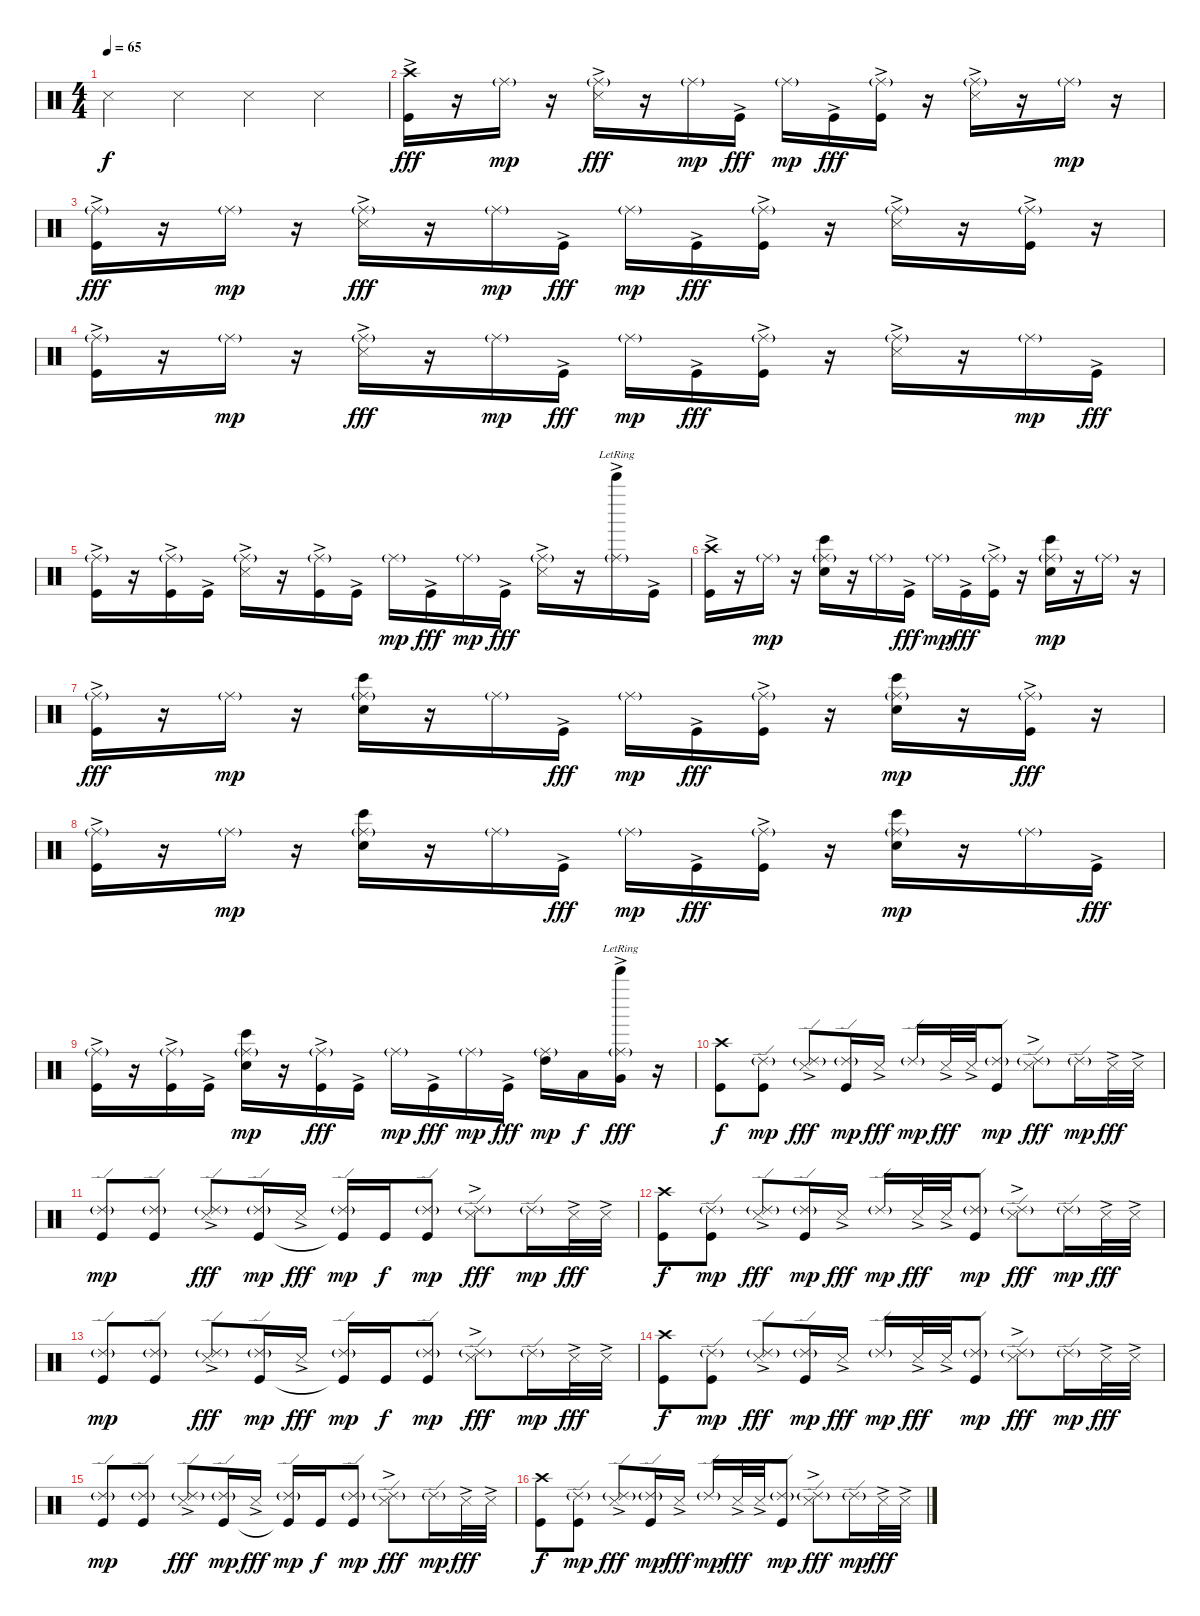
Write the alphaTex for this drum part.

\track "" {instrument percussion}
\staff {score}
\articulation defaults
\ts (4 4)
\tempo 65
\clef neutral
\ks c "Snare (side stick) 3".4{dy f} "Snare (side stick) 3".4 "Snare (side stick) 3".4 "Snare (side stick) 3".4
|
("Crash high (hit)" "Kick (hit)"{ac}).16{dy fff} r.16 "Ride (middle)"{g}.16{dy mp} r.16 ("Ride (middle)"{g} "Snare (side stick) 3"{ac}).16{dy fff} r.16 "Ride (middle)"{g}.16{dy mp} "Kick (hit)"{ac}.16{dy fff} "Ride (middle)"{g}.16{dy mp} "Kick (hit)"{ac}.16{dy fff} ("Ride (middle)"{g} "Kick (hit)"{ac}).16 r.16 ("Ride (middle)"{g} "Snare (side stick) 3"{ac}).16 r.16 "Ride (middle)"{g}.16{dy mp} r.16 |
("Ride (middle)"{g} "Kick (hit)"{ac}).16{dy fff} r.16 "Ride (middle)"{g}.16{dy mp} r.16 ("Ride (middle)"{g} "Snare (side stick) 3"{ac}).16{dy fff} r.16 "Ride (middle)"{g}.16{dy mp} "Kick (hit)"{ac}.16{dy fff} "Ride (middle)"{g}.16{dy mp} "Kick (hit)"{ac}.16{dy fff} ("Ride (middle)"{g} "Kick (hit)"{ac}).16 r.16 ("Ride (middle)"{g} "Snare (side stick) 3"{ac}).16 r.16 ("Ride (middle)"{g} "Kick (hit)"{ac}).16 r.16 |
("Ride (middle)"{g} "Kick (hit)"{ac}).16{txt ""} r.16 "Ride (middle)"{g}.16{dy mp} r.16 ("Ride (middle)"{g} "Snare (side stick) 3"{ac}).16{dy fff} r.16 "Ride (middle)"{g}.16{dy mp} "Kick (hit)"{ac}.16{dy fff} "Ride (middle)"{g}.16{dy mp} "Kick (hit)"{ac}.16{dy fff} ("Ride (middle)"{g} "Kick (hit)"{ac}).16 r.16 ("Ride (middle)"{g} "Snare (side stick) 3"{ac}).16 r.16 "Ride (middle)"{g}.16{dy mp} "Kick (hit)"{ac}.16{dy fff} |
("Ride (middle)"{g} "Kick (hit)"{ac}).16 r.16 ("Ride (middle)"{g} "Kick (hit)"{ac}).16 "Kick (hit)"{ac}.16 ("Ride (middle)"{g} "Snare (side stick) 3"{ac}).16 r.16 ("Ride (middle)"{g} "Kick (hit)"{ac}).16 "Kick (hit)"{ac}.16 "Ride (middle)"{g}.16{dy mp} "Kick (hit)"{ac}.16{dy fff} "Ride (middle)"{g}.16{dy mp} "Kick (hit)"{ac}.16{dy fff} ("Ride (middle)"{g} "Snare (side stick) 3"{ac}).16 r.16 ("Ride (middle)"{g} "Bell Tree (hit)"{ac lr}).16 "Kick (hit)"{ac}.16 |
("Crash high (hit)" "Kick (hit)"{ac}).16 r.16 "Ride (middle)"{g}.16{dy mp} r.16 ("Ride (middle)"{g} "Electric Snare (hit)" "Bongo High (hit)").16 r.16 "Ride (middle)"{g}.16 "Kick (hit)"{ac}.16{dy fff} "Ride (middle)"{g}.16{dy mp} "Kick (hit)"{ac}.16{dy fff} ("Ride (middle)"{g} "Kick (hit)"{ac}).16 r.16 ("Ride (middle)"{g} "Electric Snare (hit)" "Bongo High (hit)").16{dy mp} r.16 "Ride (middle)"{g}.16 r.16 |
("Ride (middle)"{g} "Kick (hit)"{ac}).16{dy fff} r.16 "Ride (middle)"{g}.16{dy mp} r.16 ("Ride (middle)"{g} "Electric Snare (hit)" "Bongo High (hit)").16 r.16 "Ride (middle)"{g}.16 "Kick (hit)"{ac}.16{dy fff} "Ride (middle)"{g}.16{dy mp} "Kick (hit)"{ac}.16{dy fff} ("Ride (middle)"{g} "Kick (hit)"{ac}).16 r.16 ("Ride (middle)"{g} "Electric Snare (hit)" "Bongo High (hit)").16{dy mp} r.16 ("Ride (middle)"{g} "Kick (hit)"{ac}).16{dy fff} r.16 |
("Ride (middle)"{g} "Kick (hit)"{ac}).16 r.16 "Ride (middle)"{g}.16{dy mp} r.16 ("Ride (middle)"{g} "Electric Snare (hit)" "Bongo High (hit)").16 r.16 "Ride (middle)"{g}.16 "Kick (hit)"{ac}.16{dy fff} "Ride (middle)"{g}.16{dy mp} "Kick (hit)"{ac}.16{dy fff} ("Ride (middle)"{g} "Kick (hit)"{ac}).16 r.16 ("Ride (middle)"{g} "Electric Snare (hit)" "Bongo High (hit)").16{dy mp} r.16 "Ride (middle)"{g}.16 "Kick (hit)"{ac}.16{dy fff} |
("Ride (middle)"{g} "Kick (hit)"{ac}).16 r.16 ("Ride (middle)"{g} "Kick (hit)"{ac}).16 "Kick (hit)"{ac}.16 ("Ride (middle)"{g} "Electric Snare (hit)" "Bongo High (hit)").16{dy mp} r.16 ("Ride (middle)"{g} "Kick (hit)"{ac}).16{dy fff} "Kick (hit)"{ac}.16 "Ride (middle)"{g}.16{dy mp} "Kick (hit)"{ac}.16{dy fff} "Ride (middle)"{g}.16{dy mp} "Kick (hit)"{ac}.16{dy fff} ("Ride (middle)"{g} "High Tom (hit)").16{dy mp} "Low Tom (hit)".16{dy f} ("Ride (middle)"{g} "Bell Tree (hit)"{ac lr} "Very Low Tom (hit)").16{dy fff} r.16 |
("Crash high (hit)" "Kick (hit)").8{dy f} ("Ride (edge) 2"{g} "Kick (hit)").8{dy mp} ("Ride (edge) 2"{g} "Snare (side stick) 3"{ac}).8{dy fff} ("Ride (edge) 2"{g} "Kick (hit)").16{dy mp} "Snare (side stick) 3"{ac}.16{dy fff} "Ride (edge) 2"{g}.16{dy mp} "Snare (side stick) 3"{ac}.32{dy fff} "Snare (side stick) 3"{ac}.32 ("Ride (edge) 2"{g} "Kick (hit)").8{dy mp} ("Ride (edge) 2"{g} "Snare (side stick) 3"{ac}).8{dy fff} "Ride (edge) 2"{g}.16{dy mp} "Snare (side stick) 3"{ac}.32{dy fff} "Snare (side stick) 3"{ac}.32 |
("Ride (edge) 2"{g} "Kick (hit)").8{dy mp} ("Ride (edge) 2"{g} "Kick (hit)").8 ("Ride (edge) 2"{g} "Snare (side stick) 3"{ac}).8{dy fff} ("Ride (edge) 2"{g} "Kick (hit)").16{dy mp} "Snare (side stick) 3"{ac}.16{dy fff} ("Ride (edge) 2"{g} "Kick (hit)"{t}).16{dy mp} "Kick (hit)".16{dy f} ("Ride (edge) 2"{g} "Kick (hit)").8{dy mp} ("Ride (edge) 2"{g} "Snare (side stick) 3"{ac}).8{dy fff} "Ride (edge) 2"{g}.16{dy mp} "Snare (side stick) 3"{ac}.32{dy fff} "Snare (side stick) 3"{ac}.32 |
("Crash high (hit)" "Kick (hit)").8{dy f} ("Ride (edge) 2"{g} "Kick (hit)").8{dy mp} ("Ride (edge) 2"{g} "Snare (side stick) 3"{ac}).8{dy fff} ("Ride (edge) 2"{g} "Kick (hit)").16{dy mp} "Snare (side stick) 3"{ac}.16{dy fff} "Ride (edge) 2"{g}.16{dy mp} "Snare (side stick) 3"{ac}.32{dy fff} "Snare (side stick) 3"{ac}.32 ("Ride (edge) 2"{g} "Kick (hit)").8{dy mp} ("Ride (edge) 2"{g} "Snare (side stick) 3"{ac}).8{dy fff} "Ride (edge) 2"{g}.16{dy mp} "Snare (side stick) 3"{ac}.32{dy fff} "Snare (side stick) 3"{ac}.32 |
("Ride (edge) 2"{g} "Kick (hit)").8{dy mp} ("Ride (edge) 2"{g} "Kick (hit)").8 ("Ride (edge) 2"{g} "Snare (side stick) 3"{ac}).8{dy fff} ("Ride (edge) 2"{g} "Kick (hit)").16{dy mp} "Snare (side stick) 3"{ac}.16{dy fff} ("Ride (edge) 2"{g} "Kick (hit)"{t}).16{dy mp} "Kick (hit)".16{dy f} ("Ride (edge) 2"{g} "Kick (hit)").8{dy mp} ("Ride (edge) 2"{g} "Snare (side stick) 3"{ac}).8{dy fff} "Ride (edge) 2"{g}.16{dy mp} "Snare (side stick) 3"{ac}.32{dy fff} "Snare (side stick) 3"{ac}.32 |
("Crash high (hit)" "Kick (hit)").8{dy f} ("Ride (edge) 2"{g} "Kick (hit)").8{dy mp} ("Ride (edge) 2"{g} "Snare (side stick) 3"{ac}).8{dy fff} ("Ride (edge) 2"{g} "Kick (hit)").16{dy mp} "Snare (side stick) 3"{ac}.16{dy fff} "Ride (edge) 2"{g}.16{dy mp} "Snare (side stick) 3"{ac}.32{dy fff} "Snare (side stick) 3"{ac}.32 ("Ride (edge) 2"{g} "Kick (hit)").8{dy mp} ("Ride (edge) 2"{g} "Snare (side stick) 3"{ac}).8{dy fff} "Ride (edge) 2"{g}.16{dy mp} "Snare (side stick) 3"{ac}.32{dy fff} "Snare (side stick) 3"{ac}.32 |
("Ride (edge) 2"{g} "Kick (hit)").8{dy mp} ("Ride (edge) 2"{g} "Kick (hit)").8 ("Ride (edge) 2"{g} "Snare (side stick) 3"{ac}).8{dy fff} ("Ride (edge) 2"{g} "Kick (hit)").16{dy mp} "Snare (side stick) 3"{ac}.16{dy fff} ("Ride (edge) 2"{g} "Kick (hit)"{t}).16{dy mp} "Kick (hit)".16{dy f} ("Ride (edge) 2"{g} "Kick (hit)").8{dy mp} ("Ride (edge) 2"{g} "Snare (side stick) 3"{ac}).8{dy fff} "Ride (edge) 2"{g}.16{dy mp} "Snare (side stick) 3"{ac}.32{dy fff} "Snare (side stick) 3"{ac}.32 |
("Crash high (hit)" "Kick (hit)").8{dy f} ("Ride (edge) 2"{g} "Kick (hit)").8{dy mp} ("Ride (edge) 2"{g} "Snare (side stick) 3"{ac}).8{dy fff} ("Ride (edge) 2"{g} "Kick (hit)").16{dy mp} "Snare (side stick) 3"{ac}.16{dy fff} "Ride (edge) 2"{g}.16{dy mp} "Snare (side stick) 3"{ac}.32{dy fff} "Snare (side stick) 3"{ac}.32 ("Ride (edge) 2"{g} "Kick (hit)").8{dy mp} ("Ride (edge) 2"{g} "Snare (side stick) 3"{ac}).8{dy fff} "Ride (edge) 2"{g}.16{dy mp} "Snare (side stick) 3"{ac}.32{dy fff} "Snare (side stick) 3"{ac}.32
